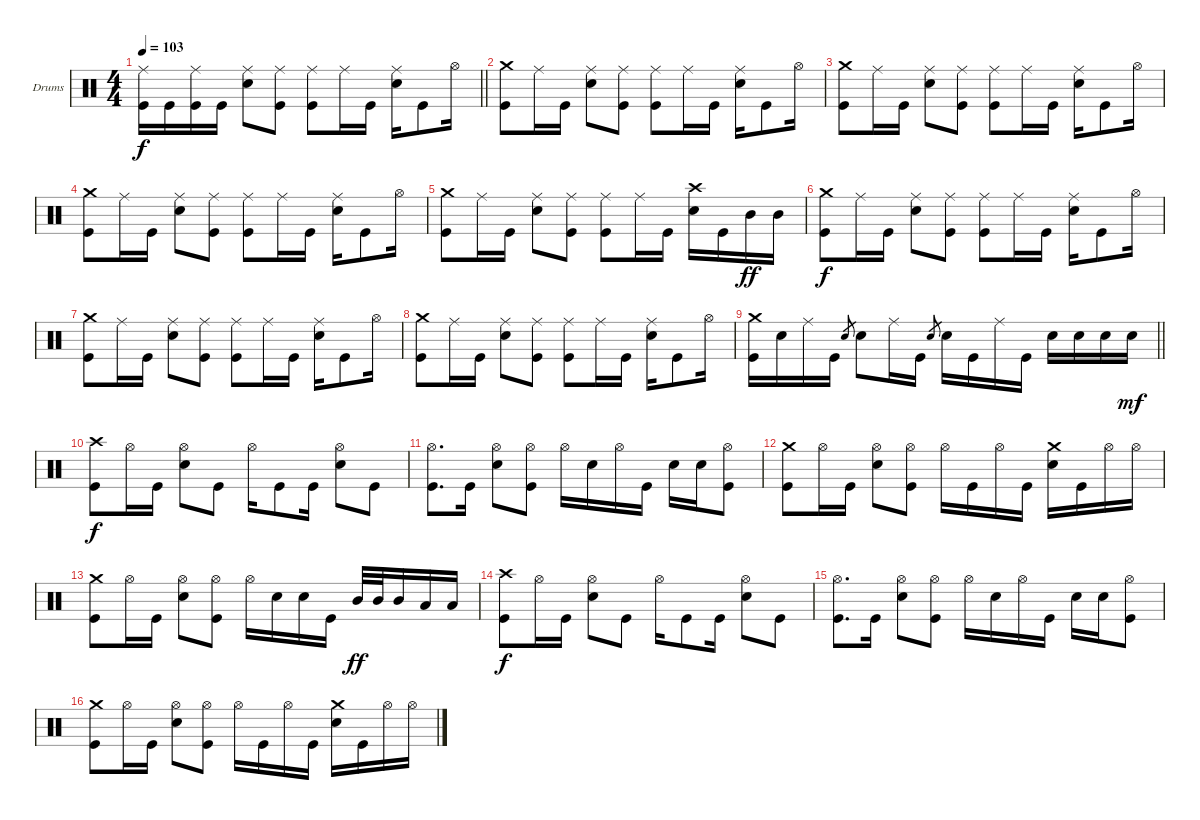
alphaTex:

\bracketExtendMode groupsimilarinstruments
\firstSystemTrackNameOrientation horizontal
\otherSystemsTrackNameOrientation horizontal
\track ("Drums" "Drums") {instrument percussion}
\staff {score}
\articulation defaults
\ts (4 4)
\tempo 103
\clef neutral
\barLineRight lightlight
\ks c
("Kick (hit)" "Ride (middle)").16{dy f} "Kick (hit)".16 ("Kick (hit)" "Ride (middle)").16 "Kick (hit)".16 ("Snare (hit) 2" "Ride (middle)").8 ("Kick (hit)" "Ride (middle)").8 ("Kick (hit)" "Ride (middle)").8 "Ride (middle)".16 "Kick (hit)".16 ("Snare (hit) 2" "Ride (middle)").16 "Kick (hit)".8 "Hi-Hat (open)".16 |
("Crash medium (hit)" "Kick (hit)").8 "Ride (middle)".16 "Kick (hit)".16 ("Snare (hit) 2" "Ride (middle)").8 ("Kick (hit)" "Ride (middle)").8 ("Kick (hit)" "Ride (middle)").8 "Ride (middle)".16 "Kick (hit)".16 ("Snare (hit) 2" "Ride (middle)").16 "Kick (hit)".8 "Hi-Hat (open)".16 |
("Crash medium (hit)" "Kick (hit)").8 "Ride (middle)".16 "Kick (hit)".16 ("Snare (hit) 2" "Ride (middle)").8 ("Kick (hit)" "Ride (middle)").8 ("Kick (hit)" "Ride (middle)").8 "Ride (middle)".16 "Kick (hit)".16 ("Snare (hit) 2" "Ride (middle)").16 "Kick (hit)".8 "Hi-Hat (open)".16 |
("Crash medium (hit)" "Kick (hit)").8 "Ride (middle)".16 "Kick (hit)".16 ("Snare (hit) 2" "Ride (middle)").8 ("Kick (hit)" "Ride (middle)").8 ("Kick (hit)" "Ride (middle)").8 "Ride (middle)".16 "Kick (hit)".16 ("Snare (hit) 2" "Ride (middle)").16 "Kick (hit)".8 "Hi-Hat (open)".16 |
("Crash medium (hit)" "Kick (hit)").8 "Ride (middle)".16 "Kick (hit)".16 ("Snare (hit) 2" "Ride (middle)").8 ("Kick (hit)" "Ride (middle)").8 ("Kick (hit)" "Ride (middle)").8 "Ride (middle)".16 "Kick (hit)".16 ("Snare (hit) 2" "Crash high (hit)").16 "Kick (hit)".16 "Mid Tom (hit)".16{dy ff} "Mid Tom (hit)".16 |
("Crash medium (hit)" "Kick (hit)").8{dy f} "Ride (middle)".16 "Kick (hit)".16 ("Snare (hit) 2" "Ride (middle)").8 ("Kick (hit)" "Ride (middle)").8 ("Kick (hit)" "Ride (middle)").8 "Ride (middle)".16 "Kick (hit)".16 ("Snare (hit) 2" "Ride (middle)").16 "Kick (hit)".8 "Hi-Hat (open)".16 |
("Crash medium (hit)" "Kick (hit)").8 "Ride (middle)".16 "Kick (hit)".16 ("Snare (hit) 2" "Ride (middle)").8 ("Kick (hit)" "Ride (middle)").8 ("Kick (hit)" "Ride (middle)").8 "Ride (middle)".16 "Kick (hit)".16 ("Snare (hit) 2" "Ride (middle)").16 "Kick (hit)".8 "Hi-Hat (open)".16 |
("Crash medium (hit)" "Kick (hit)").8 "Ride (middle)".16 "Kick (hit)".16 ("Snare (hit) 2" "Ride (middle)").8 ("Kick (hit)" "Ride (middle)").8 ("Kick (hit)" "Ride (middle)").8 "Ride (middle)".16 "Kick (hit)".16 ("Snare (hit) 2" "Ride (middle)").16 "Kick (hit)".8 "Hi-Hat (open)".16 |
\barLineRight lightlight
("Kick (hit)" "Crash medium (hit)").16 "Snare (hit) 2".16 "Ride (middle)".16 "Kick (hit)".16 "Snare (hit) 2".8{gr} "Snare (hit) 2".8 "Ride (middle)".16 "Kick (hit)".16 "Snare (hit) 2".8{gr} "Snare (hit) 2".16 "Kick (hit)".16 "Ride (middle)".16 "Kick (hit)".16 "Snare (hit) 2".16 "Snare (hit) 2".16 "Snare (hit) 2".16 "Snare (hit) 2".16{dy mf} |
("Kick (hit)" "Crash high (hit)").8{dy f} "Hi-Hat (open)".16 "Kick (hit)".16 ("Snare (hit) 2" "Hi-Hat (open)").8 "Kick (hit)".8 "Hi-Hat (open)".16 "Kick (hit)".8 "Kick (hit)".16 ("Snare (hit) 2" "Hi-Hat (open)").8 "Kick (hit)".8 |
("Kick (hit)" "Hi-Hat (open)").8{d} "Kick (hit)".16 ("Snare (hit) 2" "Hi-Hat (open)").8 ("Kick (hit)" "Hi-Hat (open)").8 "Hi-Hat (open)".16 "Snare (hit) 2".16 "Hi-Hat (open)".16 "Kick (hit)".16 "Snare (hit) 2".16 "Snare (hit) 2".16 ("Kick (hit)" "Hi-Hat (open)").8 |
("Kick (hit)" "Crash medium (hit)").8 "Hi-Hat (open)".16 "Kick (hit)".16 ("Snare (hit) 2" "Hi-Hat (open)").8 ("Kick (hit)" "Hi-Hat (open)").8 "Hi-Hat (open)".16 "Kick (hit)".16 "Hi-Hat (open)".16 "Kick (hit)".16 ("Snare (hit) 2" "Crash medium (hit)").16 "Kick (hit)".16 "Hi-Hat (open)".16 "Hi-Hat (open)".16 |
("Kick (hit)" "Crash medium (hit)").8 "Hi-Hat (open)".16 "Kick (hit)".16 ("Snare (hit) 2" "Hi-Hat (open)").8 ("Kick (hit)" "Hi-Hat (open)").8 "Hi-Hat (open)".16 "Snare (hit) 2".16 "Snare (hit) 2".16 "Kick (hit)".16 "Mid Tom (hit)".32{dy ff} "Mid Tom (hit)".32 "Mid Tom (hit)".16 "Low Tom (hit)".16 "Low Tom (hit)".16 |
("Kick (hit)" "Crash high (hit)").8{dy f} "Hi-Hat (open)".16 "Kick (hit)".16 ("Snare (hit) 2" "Hi-Hat (open)").8 "Kick (hit)".8 "Hi-Hat (open)".16 "Kick (hit)".8 "Kick (hit)".16 ("Snare (hit) 2" "Hi-Hat (open)").8 "Kick (hit)".8 |
("Kick (hit)" "Hi-Hat (open)").8{d} "Kick (hit)".16 ("Snare (hit) 2" "Hi-Hat (open)").8 ("Kick (hit)" "Hi-Hat (open)").8 "Hi-Hat (open)".16 "Snare (hit) 2".16 "Hi-Hat (open)".16 "Kick (hit)".16 "Snare (hit) 2".16 "Snare (hit) 2".16 ("Kick (hit)" "Hi-Hat (open)").8 |
("Kick (hit)" "Crash medium (hit)").8 "Hi-Hat (open)".16 "Kick (hit)".16 ("Snare (hit) 2" "Hi-Hat (open)").8 ("Kick (hit)" "Hi-Hat (open)").8 "Hi-Hat (open)".16 "Kick (hit)".16 "Hi-Hat (open)".16 "Kick (hit)".16 ("Snare (hit) 2" "Crash medium (hit)").16 "Kick (hit)".16 "Hi-Hat (open)".16 "Hi-Hat (open)".16
